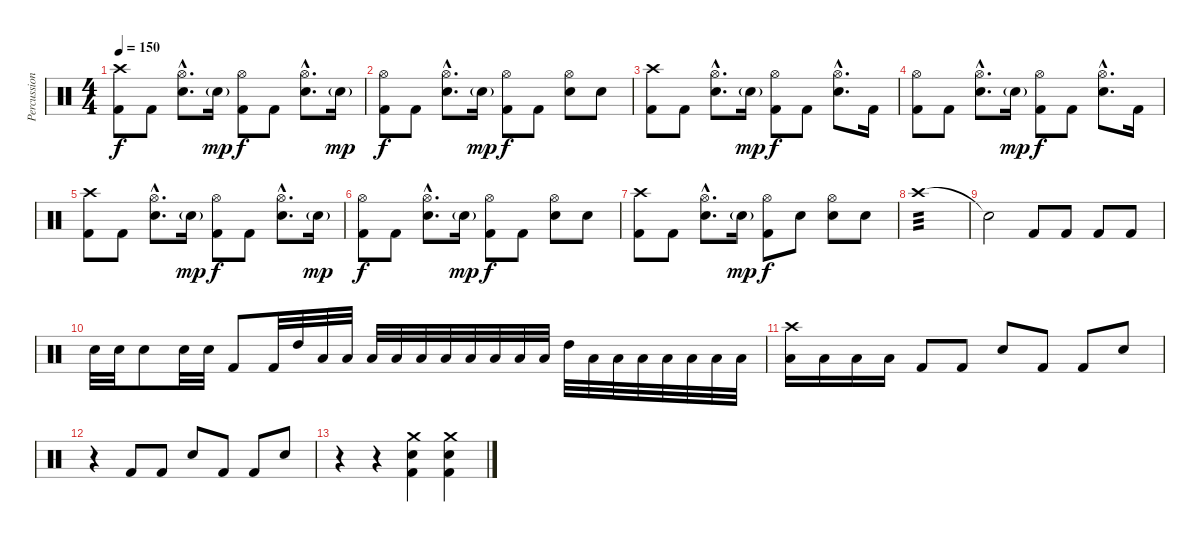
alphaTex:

\track ("Percussion" "Percussion") {instrument percussion}
\staff {score}
\articulation defaults
\ts (4 4)
\tempo 150
\clef neutral
\ks c
("Crash high (hit)" "Kick (hit) 2").8{dy f} "Kick (hit) 2".8 ("Hi-Hat (open)"{hac} "Electric Snare (hit)"{hac}).8{d} "Electric Snare (hit)"{g}.16{dy mp} ("Hi-Hat (open)" "Kick (hit) 2").8{dy f} "Kick (hit) 2".8 ("Hi-Hat (open)"{hac} "Electric Snare (hit)"{hac}).8{d} "Electric Snare (hit)"{g}.16{dy mp} |
("Hi-Hat (open)" "Kick (hit) 2").8{dy f} "Kick (hit) 2".8 ("Hi-Hat (open)"{hac} "Electric Snare (hit)"{hac}).8{d} "Electric Snare (hit)"{g}.16{dy mp} ("Hi-Hat (open)" "Kick (hit) 2").8{dy f} "Kick (hit) 2".8 ("Hi-Hat (open)" "Electric Snare (hit)").8 "Electric Snare (hit)".8 |
("Crash high (hit)" "Kick (hit) 2").8 "Kick (hit) 2".8 ("Hi-Hat (open)"{hac} "Electric Snare (hit)"{hac}).8{d} "Electric Snare (hit)"{g}.16{dy mp} ("Hi-Hat (open)" "Kick (hit) 2").8{dy f} "Kick (hit) 2".8 ("Hi-Hat (open)"{hac} "Electric Snare (hit)"{hac}).8{d} "Kick (hit) 2".16 |
("Hi-Hat (open)" "Kick (hit) 2").8 "Kick (hit) 2".8 ("Hi-Hat (open)"{hac} "Electric Snare (hit)"{hac}).8{d} "Electric Snare (hit)"{g}.16{dy mp} ("Hi-Hat (open)" "Kick (hit) 2").8{dy f} "Kick (hit) 2".8 ("Hi-Hat (open)"{hac} "Electric Snare (hit)"{hac}).8{d} "Kick (hit) 2".16 |
("Crash high (hit)" "Kick (hit) 2").8 "Kick (hit) 2".8 ("Hi-Hat (open)"{hac} "Electric Snare (hit)"{hac}).8{d} "Electric Snare (hit)"{g}.16{dy mp} ("Hi-Hat (open)" "Kick (hit) 2").8{dy f} "Kick (hit) 2".8 ("Hi-Hat (open)"{hac} "Electric Snare (hit)"{hac}).8{d} "Electric Snare (hit)"{g}.16{dy mp} |
("Hi-Hat (open)" "Kick (hit) 2").8{dy f} "Kick (hit) 2".8 ("Hi-Hat (open)"{hac} "Electric Snare (hit)"{hac}).8{d} "Electric Snare (hit)"{g}.16{dy mp} ("Hi-Hat (open)" "Kick (hit) 2").8{dy f} "Kick (hit) 2".8 ("Hi-Hat (open)" "Electric Snare (hit)").8 "Electric Snare (hit)".8 |
("Crash high (hit)" "Kick (hit) 2").8 "Kick (hit) 2".8 ("Hi-Hat (open)"{hac} "Electric Snare (hit)"{hac}).8{d} "Electric Snare (hit)"{g}.16{dy mp} ("Hi-Hat (open)" "Kick (hit) 2").8{dy f} "Electric Snare (hit)".8 ("Hi-Hat (open)" "Electric Snare (hit)").8 "Electric Snare (hit)".8 |
"Crash high (hit)".1{tp 3} |
"Snare (hit)"{t}.2 "Kick (hit) 2".8 "Kick (hit) 2".8 "Kick (hit) 2".8 "Kick (hit) 2".8 |
"Electric Snare (hit)".32 "Electric Snare (hit)".32 "Electric Snare (hit)".8 "Electric Snare (hit)".32 "Electric Snare (hit)".32 "Kick (hit) 2".8 "Kick (hit) 2".32 "High Tom (hit)".32 "Low Tom (hit)".32 "Low Tom (hit)".32 "Low Tom (hit)".32 "Low Tom (hit)".32 "Low Tom (hit)".32 "Low Tom (hit)".32 "Low Tom (hit)".32 "Low Tom (hit)".32 "Low Tom (hit)".32 "Low Tom (hit)".32 "High Tom (hit)".32 "Low Tom (hit)".32 "Low Tom (hit)".32 "Low Tom (hit)".32 "Low Tom (hit)".32 "Low Tom (hit)".32 "Low Tom (hit)".32 "Low Tom (hit)".32 |
("Crash high (hit)" "Low Tom (hit)").16 "Low Tom (hit)".16 "Low Tom (hit)".16 "Low Tom (hit)".16 "Kick (hit) 2".8 "Kick (hit) 2".8 "Electric Snare (hit)".8 "Kick (hit) 2".8 "Kick (hit) 2".8 "Electric Snare (hit)".8 |
r.4 "Kick (hit) 2".8 "Kick (hit) 2".8 "Electric Snare (hit)".8 "Kick (hit) 2".8 "Kick (hit) 2".8 "Electric Snare (hit)".8 |
r.4 r.4 ("Crash medium (hit)" "Electric Snare (hit)" "Kick (hit) 2").4 ("Crash medium (hit)" "Electric Snare (hit)" "Kick (hit) 2").4
